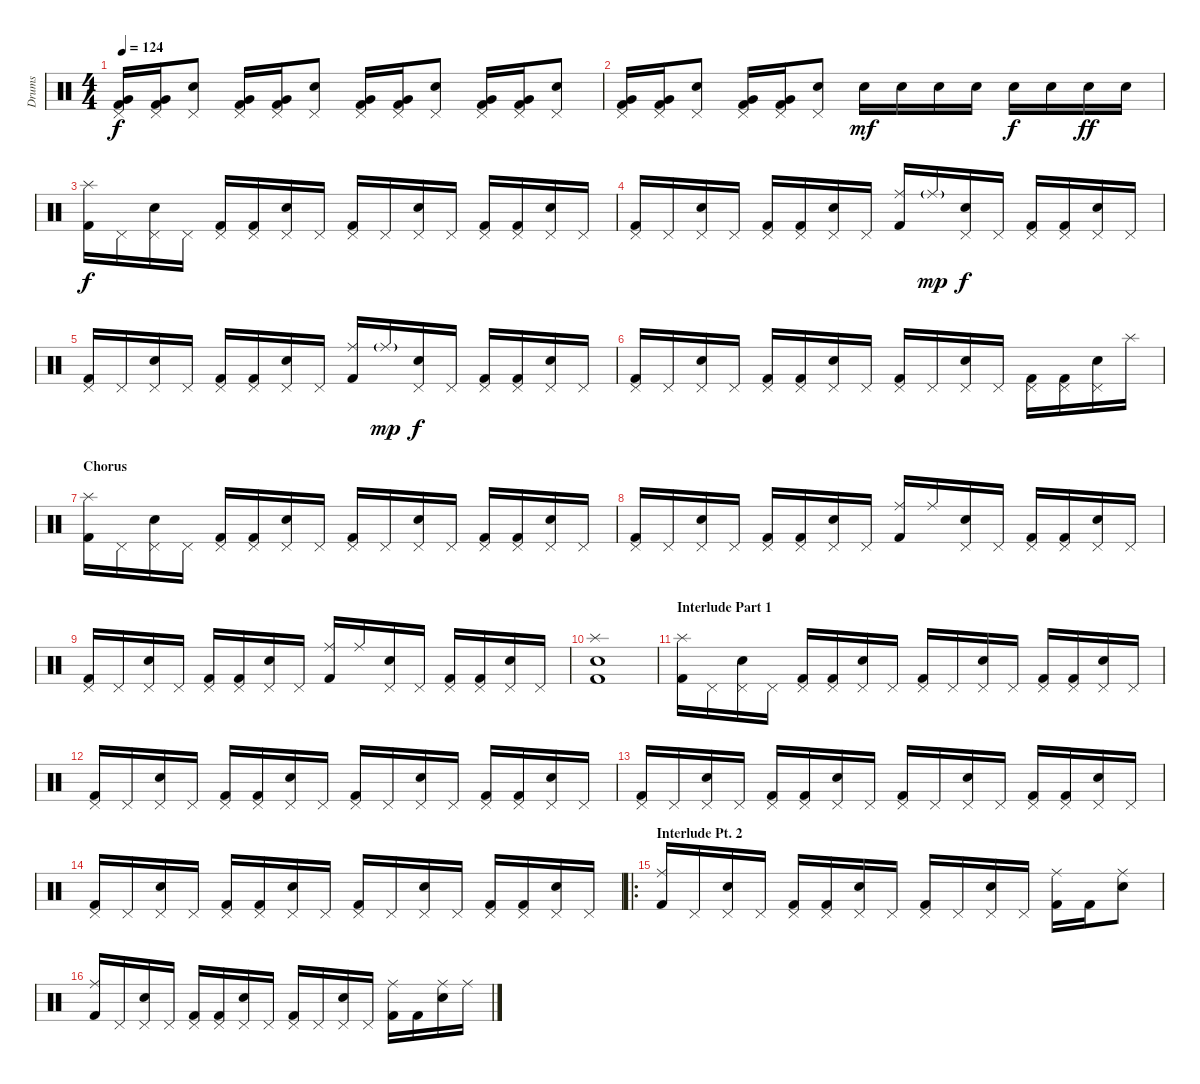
\track ("Drums" "Drums") {instrument percussion}
\staff {score}
\articulation defaults
\ts (4 4)
\tempo 124
\clef neutral
\ks c
("Pedal Hi-Hat (hit)" "Very Low Tom (hit)" "Kick (hit) 2").16{dy f} ("Pedal Hi-Hat (hit)" "Very Low Tom (hit)" "Kick (hit) 2").16 ("Pedal Hi-Hat (hit)" "Electric Snare (hit)").8 ("Pedal Hi-Hat (hit)" "Very Low Tom (hit)" "Kick (hit) 2").16 ("Pedal Hi-Hat (hit)" "Very Low Tom (hit)" "Kick (hit) 2").16 ("Pedal Hi-Hat (hit)" "Electric Snare (hit)").8 ("Pedal Hi-Hat (hit)" "Very Low Tom (hit)" "Kick (hit) 2").16 ("Pedal Hi-Hat (hit)" "Very Low Tom (hit)" "Kick (hit) 2").16 ("Pedal Hi-Hat (hit)" "Electric Snare (hit)").8 ("Pedal Hi-Hat (hit)" "Very Low Tom (hit)" "Kick (hit) 2").16 ("Pedal Hi-Hat (hit)" "Very Low Tom (hit)" "Kick (hit) 2").16 ("Pedal Hi-Hat (hit)" "Electric Snare (hit)").8 |
("Pedal Hi-Hat (hit)" "Very Low Tom (hit)" "Kick (hit) 2").16 ("Pedal Hi-Hat (hit)" "Very Low Tom (hit)" "Kick (hit) 2").16 ("Pedal Hi-Hat (hit)" "Electric Snare (hit)").8 ("Pedal Hi-Hat (hit)" "Very Low Tom (hit)" "Kick (hit) 2").16 ("Pedal Hi-Hat (hit)" "Very Low Tom (hit)" "Kick (hit) 2").16 ("Pedal Hi-Hat (hit)" "Electric Snare (hit)").8 "Electric Snare (hit)".16{dy mf} "Electric Snare (hit)".16 "Electric Snare (hit)".16 "Electric Snare (hit)".16 "Electric Snare (hit)".16{dy f} "Electric Snare (hit)".16 "Electric Snare (hit)".16{dy ff} "Electric Snare (hit)".16 |
("Splash (hit)" "Kick (hit) 2").16{dy f} "Pedal Hi-Hat (hit)".16 ("Pedal Hi-Hat (hit)" "Electric Snare (hit)").16 "Pedal Hi-Hat (hit)".16 ("Pedal Hi-Hat (hit)" "Kick (hit) 2").16 ("Pedal Hi-Hat (hit)" "Kick (hit) 2").16 ("Pedal Hi-Hat (hit)" "Electric Snare (hit)").16 "Pedal Hi-Hat (hit)".16 ("Pedal Hi-Hat (hit)" "Kick (hit) 2").16 "Pedal Hi-Hat (hit)".16 ("Pedal Hi-Hat (hit)" "Electric Snare (hit)").16 "Pedal Hi-Hat (hit)".16 ("Pedal Hi-Hat (hit)" "Kick (hit) 2").16 ("Pedal Hi-Hat (hit)" "Kick (hit) 2").16 ("Pedal Hi-Hat (hit)" "Electric Snare (hit)").16 "Pedal Hi-Hat (hit)".16 |
("Pedal Hi-Hat (hit)" "Kick (hit) 2").16 "Pedal Hi-Hat (hit)".16 ("Pedal Hi-Hat (hit)" "Electric Snare (hit)").16 "Pedal Hi-Hat (hit)".16 ("Pedal Hi-Hat (hit)" "Kick (hit) 2").16 ("Pedal Hi-Hat (hit)" "Kick (hit) 2").16 ("Pedal Hi-Hat (hit)" "Electric Snare (hit)").16 "Pedal Hi-Hat (hit)".16 ("Ride (middle)" "Kick (hit) 2").16 "Ride (middle)"{g}.16{dy mp} ("Pedal Hi-Hat (hit)" "Electric Snare (hit)").16{dy f} "Pedal Hi-Hat (hit)".16 ("Pedal Hi-Hat (hit)" "Kick (hit) 2").16 ("Pedal Hi-Hat (hit)" "Kick (hit) 2").16 ("Pedal Hi-Hat (hit)" "Electric Snare (hit)").16 "Pedal Hi-Hat (hit)".16 |
("Pedal Hi-Hat (hit)" "Kick (hit) 2").16 "Pedal Hi-Hat (hit)".16 ("Pedal Hi-Hat (hit)" "Electric Snare (hit)").16 "Pedal Hi-Hat (hit)".16 ("Pedal Hi-Hat (hit)" "Kick (hit) 2").16 ("Pedal Hi-Hat (hit)" "Kick (hit) 2").16 ("Pedal Hi-Hat (hit)" "Electric Snare (hit)").16 "Pedal Hi-Hat (hit)".16 ("Ride (middle)" "Kick (hit) 2").16 "Ride (middle)"{g}.16{dy mp} ("Pedal Hi-Hat (hit)" "Electric Snare (hit)").16{dy f} "Pedal Hi-Hat (hit)".16 ("Pedal Hi-Hat (hit)" "Kick (hit) 2").16 ("Pedal Hi-Hat (hit)" "Kick (hit) 2").16 ("Pedal Hi-Hat (hit)" "Electric Snare (hit)").16 "Pedal Hi-Hat (hit)".16 |
("Pedal Hi-Hat (hit)" "Kick (hit) 2").16 "Pedal Hi-Hat (hit)".16 ("Pedal Hi-Hat (hit)" "Electric Snare (hit)").16 "Pedal Hi-Hat (hit)".16 ("Pedal Hi-Hat (hit)" "Kick (hit) 2").16 ("Pedal Hi-Hat (hit)" "Kick (hit) 2").16 ("Pedal Hi-Hat (hit)" "Electric Snare (hit)").16 "Pedal Hi-Hat (hit)".16 ("Pedal Hi-Hat (hit)" "Kick (hit) 2").16 "Pedal Hi-Hat (hit)".16 ("Pedal Hi-Hat (hit)" "Electric Snare (hit)").16 "Pedal Hi-Hat (hit)".16 ("Pedal Hi-Hat (hit)" "Kick (hit) 2").16 ("Pedal Hi-Hat (hit)" "Kick (hit) 2").16 ("Pedal Hi-Hat (hit)" "Electric Snare (hit)").16 "Splash (hit)".16 |
\section ("" "Chorus")
("Splash (hit)" "Kick (hit) 2").16 "Pedal Hi-Hat (hit)".16 ("Pedal Hi-Hat (hit)" "Electric Snare (hit)").16 "Pedal Hi-Hat (hit)".16 ("Pedal Hi-Hat (hit)" "Kick (hit) 2").16 ("Pedal Hi-Hat (hit)" "Kick (hit) 2").16 ("Pedal Hi-Hat (hit)" "Electric Snare (hit)").16 "Pedal Hi-Hat (hit)".16 ("Pedal Hi-Hat (hit)" "Kick (hit) 2").16 "Pedal Hi-Hat (hit)".16 ("Pedal Hi-Hat (hit)" "Electric Snare (hit)").16 "Pedal Hi-Hat (hit)".16 ("Pedal Hi-Hat (hit)" "Kick (hit) 2").16 ("Pedal Hi-Hat (hit)" "Kick (hit) 2").16 ("Pedal Hi-Hat (hit)" "Electric Snare (hit)").16 "Pedal Hi-Hat (hit)".16 |
("Pedal Hi-Hat (hit)" "Kick (hit) 2").16 "Pedal Hi-Hat (hit)".16 ("Pedal Hi-Hat (hit)" "Electric Snare (hit)").16 "Pedal Hi-Hat (hit)".16 ("Pedal Hi-Hat (hit)" "Kick (hit) 2").16 ("Pedal Hi-Hat (hit)" "Kick (hit) 2").16 ("Pedal Hi-Hat (hit)" "Electric Snare (hit)").16 "Pedal Hi-Hat (hit)".16 ("Ride (middle)" "Kick (hit) 2").16 "Ride (middle)".16 ("Pedal Hi-Hat (hit)" "Electric Snare (hit)").16 "Pedal Hi-Hat (hit)".16 ("Pedal Hi-Hat (hit)" "Kick (hit) 2").16 ("Pedal Hi-Hat (hit)" "Kick (hit) 2").16 ("Pedal Hi-Hat (hit)" "Electric Snare (hit)").16 "Pedal Hi-Hat (hit)".16 |
("Pedal Hi-Hat (hit)" "Kick (hit) 2").16 "Pedal Hi-Hat (hit)".16 ("Pedal Hi-Hat (hit)" "Electric Snare (hit)").16 "Pedal Hi-Hat (hit)".16 ("Pedal Hi-Hat (hit)" "Kick (hit) 2").16 ("Pedal Hi-Hat (hit)" "Kick (hit) 2").16 ("Pedal Hi-Hat (hit)" "Electric Snare (hit)").16 "Pedal Hi-Hat (hit)".16 ("Ride (middle)" "Kick (hit) 2").16 "Ride (middle)".16 ("Pedal Hi-Hat (hit)" "Electric Snare (hit)").16 "Pedal Hi-Hat (hit)".16 ("Pedal Hi-Hat (hit)" "Kick (hit) 2").16 ("Pedal Hi-Hat (hit)" "Kick (hit) 2").16 ("Pedal Hi-Hat (hit)" "Electric Snare (hit)").16 "Pedal Hi-Hat (hit)".16 |
("Splash (hit)" "Electric Snare (hit)" "Kick (hit) 2").1 |
\section ("" "Interlude Part 1")
("Splash (hit)" "Kick (hit) 2").16 "Pedal Hi-Hat (hit)".16 ("Pedal Hi-Hat (hit)" "Electric Snare (hit)").16 "Pedal Hi-Hat (hit)".16 ("Pedal Hi-Hat (hit)" "Kick (hit) 2").16 ("Pedal Hi-Hat (hit)" "Kick (hit) 2").16 ("Pedal Hi-Hat (hit)" "Electric Snare (hit)").16 "Pedal Hi-Hat (hit)".16 ("Pedal Hi-Hat (hit)" "Kick (hit) 2").16 "Pedal Hi-Hat (hit)".16 ("Pedal Hi-Hat (hit)" "Electric Snare (hit)").16 "Pedal Hi-Hat (hit)".16 ("Pedal Hi-Hat (hit)" "Kick (hit) 2").16 ("Pedal Hi-Hat (hit)" "Kick (hit) 2").16 ("Pedal Hi-Hat (hit)" "Electric Snare (hit)").16 "Pedal Hi-Hat (hit)".16 |
("Pedal Hi-Hat (hit)" "Kick (hit) 2").16 "Pedal Hi-Hat (hit)".16 ("Pedal Hi-Hat (hit)" "Electric Snare (hit)").16 "Pedal Hi-Hat (hit)".16 ("Pedal Hi-Hat (hit)" "Kick (hit) 2").16 ("Pedal Hi-Hat (hit)" "Kick (hit) 2").16 ("Pedal Hi-Hat (hit)" "Electric Snare (hit)").16 "Pedal Hi-Hat (hit)".16 ("Pedal Hi-Hat (hit)" "Kick (hit) 2").16 "Pedal Hi-Hat (hit)".16 ("Pedal Hi-Hat (hit)" "Electric Snare (hit)").16 "Pedal Hi-Hat (hit)".16 ("Pedal Hi-Hat (hit)" "Kick (hit) 2").16 ("Pedal Hi-Hat (hit)" "Kick (hit) 2").16 ("Pedal Hi-Hat (hit)" "Electric Snare (hit)").16 "Pedal Hi-Hat (hit)".16 |
("Pedal Hi-Hat (hit)" "Kick (hit) 2").16 "Pedal Hi-Hat (hit)".16 ("Pedal Hi-Hat (hit)" "Electric Snare (hit)").16 "Pedal Hi-Hat (hit)".16 ("Pedal Hi-Hat (hit)" "Kick (hit) 2").16 ("Pedal Hi-Hat (hit)" "Kick (hit) 2").16 ("Pedal Hi-Hat (hit)" "Electric Snare (hit)").16 "Pedal Hi-Hat (hit)".16 ("Pedal Hi-Hat (hit)" "Kick (hit) 2").16 "Pedal Hi-Hat (hit)".16 ("Pedal Hi-Hat (hit)" "Electric Snare (hit)").16 "Pedal Hi-Hat (hit)".16 ("Pedal Hi-Hat (hit)" "Kick (hit) 2").16 ("Pedal Hi-Hat (hit)" "Kick (hit) 2").16 ("Pedal Hi-Hat (hit)" "Electric Snare (hit)").16 "Pedal Hi-Hat (hit)".16 |
("Pedal Hi-Hat (hit)" "Kick (hit) 2").16 "Pedal Hi-Hat (hit)".16 ("Pedal Hi-Hat (hit)" "Electric Snare (hit)").16 "Pedal Hi-Hat (hit)".16 ("Pedal Hi-Hat (hit)" "Kick (hit) 2").16 ("Pedal Hi-Hat (hit)" "Kick (hit) 2").16 ("Pedal Hi-Hat (hit)" "Electric Snare (hit)").16 "Pedal Hi-Hat (hit)".16 ("Pedal Hi-Hat (hit)" "Kick (hit) 2").16 "Pedal Hi-Hat (hit)".16 ("Pedal Hi-Hat (hit)" "Electric Snare (hit)").16 "Pedal Hi-Hat (hit)".16 ("Pedal Hi-Hat (hit)" "Kick (hit) 2").16 ("Pedal Hi-Hat (hit)" "Kick (hit) 2").16 ("Pedal Hi-Hat (hit)" "Electric Snare (hit)").16 "Pedal Hi-Hat (hit)".16 |
\ro
\section ("" "Interlude Pt. 2")
("Ride (middle)" "Kick (hit) 2").16 "Pedal Hi-Hat (hit)".16 ("Pedal Hi-Hat (hit)" "Electric Snare (hit)").16 "Pedal Hi-Hat (hit)".16 ("Pedal Hi-Hat (hit)" "Kick (hit) 2").16 ("Pedal Hi-Hat (hit)" "Kick (hit) 2").16 ("Pedal Hi-Hat (hit)" "Electric Snare (hit)").16 "Pedal Hi-Hat (hit)".16 ("Pedal Hi-Hat (hit)" "Kick (hit) 2").16 "Pedal Hi-Hat (hit)".16 ("Pedal Hi-Hat (hit)" "Electric Snare (hit)").16 "Pedal Hi-Hat (hit)".16 ("Ride (middle)" "Kick (hit) 2").16 "Kick (hit) 2".16 ("Ride (middle)" "Electric Snare (hit)").8 |
("Ride (middle)" "Kick (hit) 2").16 "Pedal Hi-Hat (hit)".16 ("Pedal Hi-Hat (hit)" "Electric Snare (hit)").16 "Pedal Hi-Hat (hit)".16 ("Pedal Hi-Hat (hit)" "Kick (hit) 2").16 ("Pedal Hi-Hat (hit)" "Kick (hit) 2").16 ("Pedal Hi-Hat (hit)" "Electric Snare (hit)").16 "Pedal Hi-Hat (hit)".16 ("Pedal Hi-Hat (hit)" "Kick (hit) 2").16 "Pedal Hi-Hat (hit)".16 ("Pedal Hi-Hat (hit)" "Electric Snare (hit)").16 "Pedal Hi-Hat (hit)".16 ("Ride (middle)" "Kick (hit) 2").16 "Kick (hit) 2".16 ("Ride (middle)" "Electric Snare (hit)").16 "Ride (middle)".16
